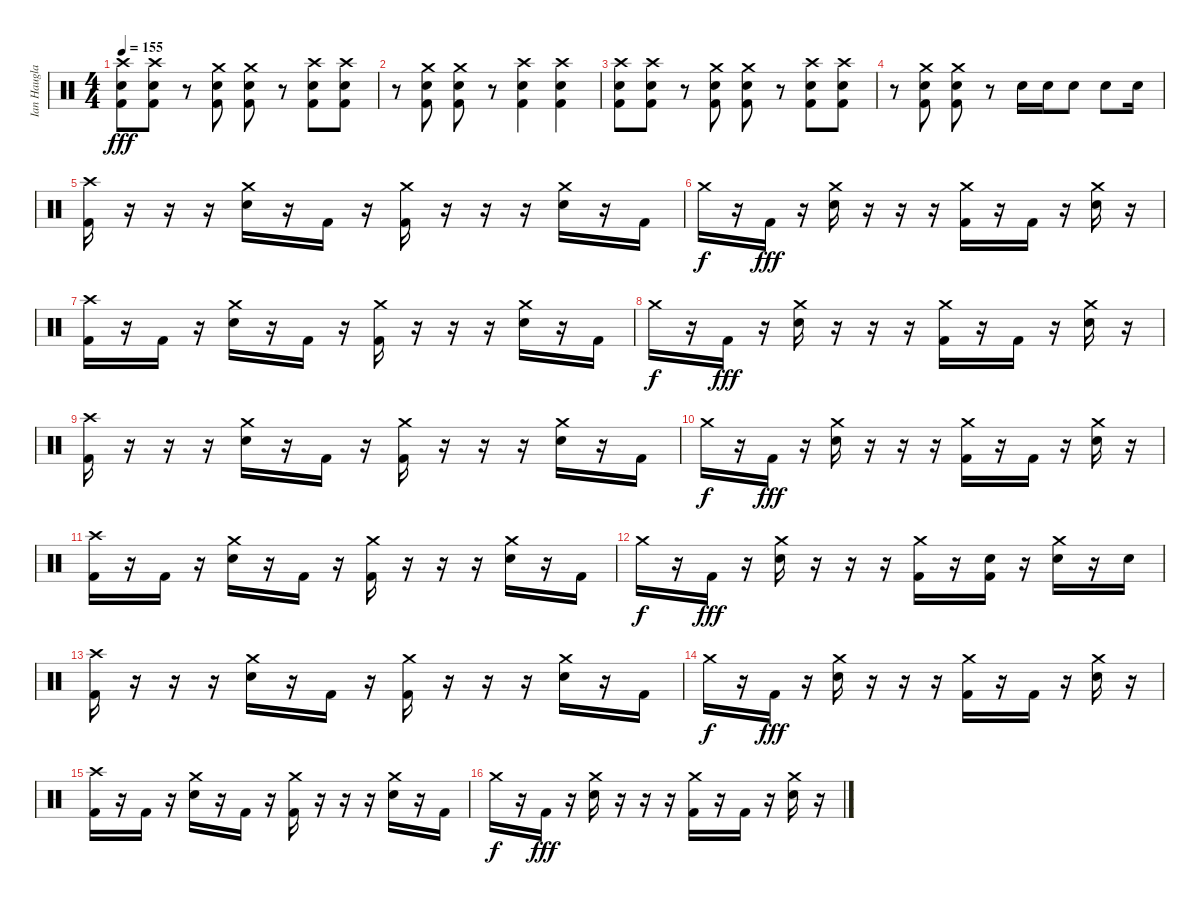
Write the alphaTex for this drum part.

\track ("Ian Haugland" "Ian Haugla") {instrument percussion}
\staff {score}
\articulation defaults
\ts (4 4)
\tempo 155
\clef neutral
\ks c
("Crash high (hit)" "Electric Snare (hit)" "Kick (hit) 2").8{dy fff} ("Crash high (hit)" "Electric Snare (hit)" "Kick (hit) 2").8 r.8 ("Crash medium (hit)" "Electric Snare (hit)" "Kick (hit) 2").8 ("Crash medium (hit)" "Electric Snare (hit)" "Kick (hit) 2").8 r.8 ("Crash high (hit)" "Electric Snare (hit)" "Kick (hit) 2").8 ("Crash high (hit)" "Electric Snare (hit)" "Kick (hit) 2").8 |
r.8 ("Crash medium (hit)" "Electric Snare (hit)" "Kick (hit) 2").8 ("Crash medium (hit)" "Electric Snare (hit)" "Kick (hit) 2").8 r.8 ("Crash high (hit)" "Electric Snare (hit)" "Kick (hit) 2").4 ("Crash high (hit)" "Electric Snare (hit)" "Kick (hit) 2").4 |
("Crash high (hit)" "Electric Snare (hit)" "Kick (hit) 2").8 ("Crash high (hit)" "Electric Snare (hit)" "Kick (hit) 2").8 r.8 ("Crash medium (hit)" "Electric Snare (hit)" "Kick (hit) 2").8 ("Crash medium (hit)" "Electric Snare (hit)" "Kick (hit) 2").8 r.8 ("Crash high (hit)" "Electric Snare (hit)" "Kick (hit) 2").8 ("Crash high (hit)" "Electric Snare (hit)" "Kick (hit) 2").8 |
r.8 ("Crash medium (hit)" "Electric Snare (hit)" "Kick (hit) 2").8 ("Crash medium (hit)" "Electric Snare (hit)" "Kick (hit) 2").8 r.8 "Electric Snare (hit)".16 "Electric Snare (hit)".16 "Electric Snare (hit)".8 "Electric Snare (hit)".8 "Electric Snare (hit)".16 |
("Crash high (hit)" "Kick (hit) 2").16 r.16 r.16 r.16 ("Crash medium (hit)" "Electric Snare (hit)").16 r.16 "Kick (hit) 2".16 r.16 ("Crash medium (hit)" "Kick (hit) 2").16 r.16 r.16 r.16 ("Crash medium (hit)" "Electric Snare (hit)").16 r.16 "Kick (hit) 2".16 |
"Crash medium (hit)".16{dy f} r.16 "Kick (hit) 2".16{dy fff} r.16 ("Crash medium (hit)" "Electric Snare (hit)").16 r.16 r.16 r.16 ("Crash medium (hit)" "Kick (hit) 2").16 r.16 "Kick (hit) 2".16 r.16 ("Crash medium (hit)" "Electric Snare (hit)").16 r.16 |
("Crash high (hit)" "Kick (hit) 2").16 r.16 "Kick (hit) 2".16 r.16 ("Crash medium (hit)" "Electric Snare (hit)").16 r.16 "Kick (hit) 2".16 r.16 ("Crash medium (hit)" "Kick (hit) 2").16 r.16 r.16 r.16 ("Crash medium (hit)" "Electric Snare (hit)").16 r.16 "Kick (hit) 2".16 |
"Crash medium (hit)".16{dy f} r.16 "Kick (hit) 2".16{dy fff} r.16 ("Crash medium (hit)" "Electric Snare (hit)").16 r.16 r.16 r.16 ("Crash medium (hit)" "Kick (hit) 2").16 r.16 "Kick (hit) 2".16 r.16 ("Crash medium (hit)" "Electric Snare (hit)").16 r.16 |
("Crash high (hit)" "Kick (hit) 2").16 r.16 r.16 r.16 ("Crash medium (hit)" "Electric Snare (hit)").16 r.16 "Kick (hit) 2".16 r.16 ("Crash medium (hit)" "Kick (hit) 2").16 r.16 r.16 r.16 ("Crash medium (hit)" "Electric Snare (hit)").16 r.16 "Kick (hit) 2".16 |
"Crash medium (hit)".16{dy f} r.16 "Kick (hit) 2".16{dy fff} r.16 ("Crash medium (hit)" "Electric Snare (hit)").16 r.16 r.16 r.16 ("Crash medium (hit)" "Kick (hit) 2").16 r.16 "Kick (hit) 2".16 r.16 ("Crash medium (hit)" "Electric Snare (hit)").16 r.16 |
("Crash high (hit)" "Kick (hit) 2").16 r.16 "Kick (hit) 2".16 r.16 ("Crash medium (hit)" "Electric Snare (hit)").16 r.16 "Kick (hit) 2".16 r.16 ("Crash medium (hit)" "Kick (hit) 2").16 r.16 r.16 r.16 ("Crash medium (hit)" "Electric Snare (hit)").16 r.16 "Kick (hit) 2".16 |
"Crash medium (hit)".16{dy f} r.16 "Kick (hit) 2".16{dy fff} r.16 ("Crash medium (hit)" "Electric Snare (hit)").16 r.16 r.16 r.16 ("Crash medium (hit)" "Kick (hit) 2").16 r.16 ("Electric Snare (hit)" "Kick (hit) 2").16 r.16 ("Crash medium (hit)" "Electric Snare (hit)").16 r.16 "Electric Snare (hit)".16 |
("Crash high (hit)" "Kick (hit) 2").16 r.16 r.16 r.16 ("Crash medium (hit)" "Electric Snare (hit)").16 r.16 "Kick (hit) 2".16 r.16 ("Crash medium (hit)" "Kick (hit) 2").16 r.16 r.16 r.16 ("Crash medium (hit)" "Electric Snare (hit)").16 r.16 "Kick (hit) 2".16 |
"Crash medium (hit)".16{dy f} r.16 "Kick (hit) 2".16{dy fff} r.16 ("Crash medium (hit)" "Electric Snare (hit)").16 r.16 r.16 r.16 ("Crash medium (hit)" "Kick (hit) 2").16 r.16 "Kick (hit) 2".16 r.16 ("Crash medium (hit)" "Electric Snare (hit)").16 r.16 |
("Crash high (hit)" "Kick (hit) 2").16 r.16 "Kick (hit) 2".16 r.16 ("Crash medium (hit)" "Electric Snare (hit)").16 r.16 "Kick (hit) 2".16 r.16 ("Crash medium (hit)" "Kick (hit) 2").16 r.16 r.16 r.16 ("Crash medium (hit)" "Electric Snare (hit)").16 r.16 "Kick (hit) 2".16 |
"Crash medium (hit)".16{dy f} r.16 "Kick (hit) 2".16{dy fff} r.16 ("Crash medium (hit)" "Electric Snare (hit)").16 r.16 r.16 r.16 ("Crash medium (hit)" "Kick (hit) 2").16 r.16 "Kick (hit) 2".16 r.16 ("Crash medium (hit)" "Electric Snare (hit)").16 r.16
